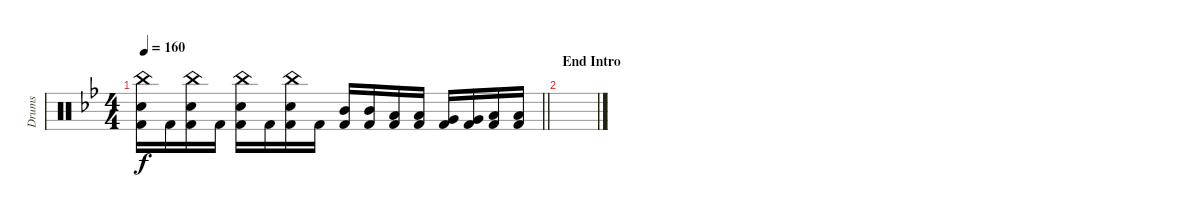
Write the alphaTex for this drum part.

\track ("Drums" "Drums") {instrument percussion}
\staff {score}
\articulation defaults
\ts (4 4)
\tempo 160
\clef neutral
\barLineRight lightlight
\ks bb
("China (hit)" "Electric Snare (hit)" "Kick (hit) 2").16{dy f} "Kick (hit) 2".16 ("China (hit)" "Electric Snare (hit)" "Kick (hit) 2").16 "Kick (hit) 2".16 ("China (hit)" "Electric Snare (hit)" "Kick (hit) 2").16 "Kick (hit) 2".16 ("China (hit)" "Electric Snare (hit)" "Kick (hit) 2").16 "Kick (hit) 2".16 ("Mid Tom (hit)" "Kick (hit) 2").16 ("Mid Tom (hit)" "Kick (hit) 2").16 ("Low Tom (hit)" "Kick (hit) 2").16 ("Low Tom (hit)" "Kick (hit) 2").16 ("Very Low Tom (hit)" "Kick (hit) 2").16 ("Very Low Tom (hit)" "Kick (hit) 2").16 ("Low Floor Tom (hit)" "Kick (hit) 2").16 ("Low Floor Tom (hit)" "Kick (hit) 2").16 |
\section ("" "End Intro")
